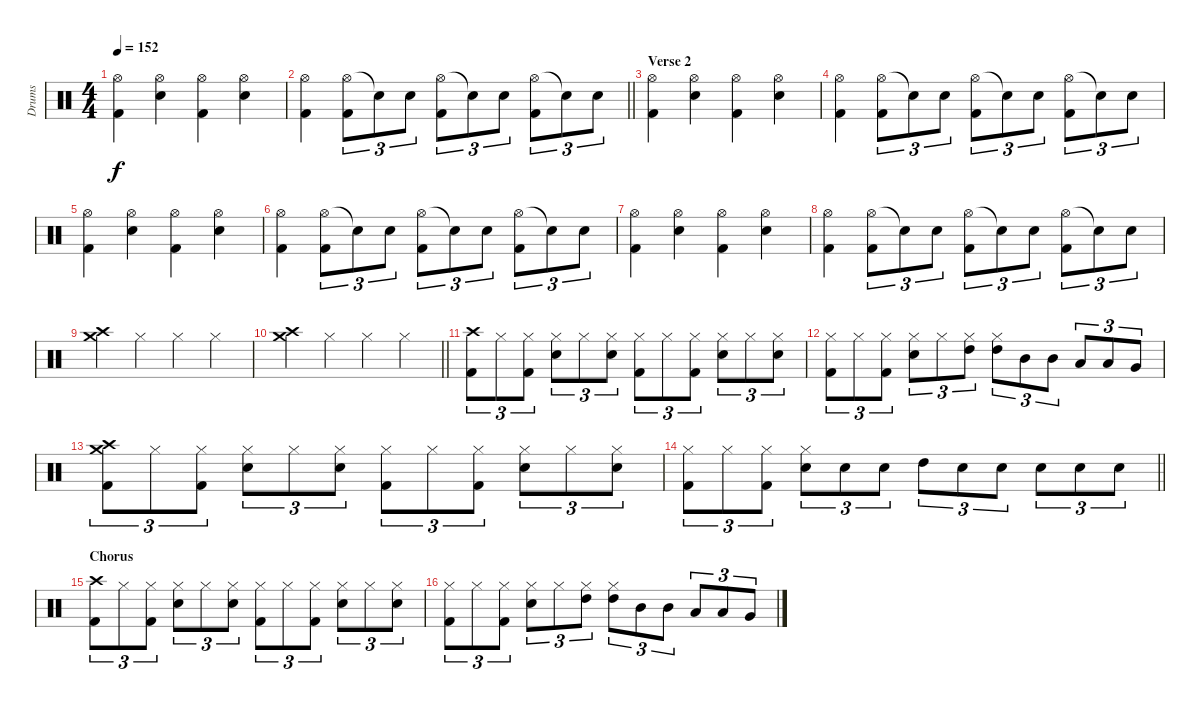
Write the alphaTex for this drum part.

\track ("Drums" "Drums") {instrument percussion}
\staff {score}
\articulation defaults
\ts (4 4)
\tempo 152
\clef neutral
\ks c
("Hi-Hat (open)" "Kick (hit) 2").4{dy f} ("Hi-Hat (open)" "Snare (hit) 2").4 ("Hi-Hat (open)" "Kick (hit) 2").4 ("Hi-Hat (open)" "Snare (hit) 2").4 |
\barLineRight lightlight
("Hi-Hat (open)" "Kick (hit) 2").4 ("Hi-Hat (open)" "Kick (hit) 2").8{tu (3 2)} "Snare (hit)"{t}.8{tu (3 2)} "Snare (hit) 2".8{tu (3 2)} ("Hi-Hat (open)" "Kick (hit) 2").8{tu (3 2)} "Snare (hit)"{t}.8{tu (3 2)} "Snare (hit) 2".8{tu (3 2)} ("Hi-Hat (open)" "Kick (hit) 2").8{tu (3 2)} "Snare (hit) 2"{t}.8{tu (3 2)} "Snare (hit) 2".8{tu (3 2)} |
\section ("" "Verse 2")
("Hi-Hat (open)" "Kick (hit) 2").4 ("Hi-Hat (open)" "Snare (hit) 2").4 ("Hi-Hat (open)" "Kick (hit) 2").4 ("Hi-Hat (open)" "Snare (hit) 2").4 |
("Hi-Hat (open)" "Kick (hit) 2").4 ("Hi-Hat (open)" "Kick (hit) 2").8{tu (3 2)} "Snare (hit)"{t}.8{tu (3 2)} "Snare (hit) 2".8{tu (3 2)} ("Hi-Hat (open)" "Kick (hit) 2").8{tu (3 2)} "Snare (hit)"{t}.8{tu (3 2)} "Snare (hit) 2".8{tu (3 2)} ("Hi-Hat (open)" "Kick (hit) 2").8{tu (3 2)} "Snare (hit) 2"{t}.8{tu (3 2)} "Snare (hit) 2".8{tu (3 2)} |
("Hi-Hat (open)" "Kick (hit) 2").4 ("Hi-Hat (open)" "Snare (hit) 2").4 ("Hi-Hat (open)" "Kick (hit) 2").4 ("Hi-Hat (open)" "Snare (hit) 2").4 |
("Hi-Hat (open)" "Kick (hit) 2").4 ("Hi-Hat (open)" "Kick (hit) 2").8{tu (3 2)} "Snare (hit)"{t}.8{tu (3 2)} "Snare (hit) 2".8{tu (3 2)} ("Hi-Hat (open)" "Kick (hit) 2").8{tu (3 2)} "Snare (hit)"{t}.8{tu (3 2)} "Snare (hit) 2".8{tu (3 2)} ("Hi-Hat (open)" "Kick (hit) 2").8{tu (3 2)} "Snare (hit) 2"{t}.8{tu (3 2)} "Snare (hit) 2".8{tu (3 2)} |
("Hi-Hat (open)" "Kick (hit) 2").4 ("Hi-Hat (open)" "Snare (hit) 2").4 ("Hi-Hat (open)" "Kick (hit) 2").4 ("Hi-Hat (open)" "Snare (hit) 2").4 |
("Hi-Hat (open)" "Kick (hit) 2").4 ("Hi-Hat (open)" "Kick (hit) 2").8{tu (3 2)} "Snare (hit)"{t}.8{tu (3 2)} "Snare (hit) 2".8{tu (3 2)} ("Hi-Hat (open)" "Kick (hit) 2").8{tu (3 2)} "Snare (hit)"{t}.8{tu (3 2)} "Snare (hit) 2".8{tu (3 2)} ("Hi-Hat (open)" "Kick (hit) 2").8{tu (3 2)} "Snare (hit) 2"{t}.8{tu (3 2)} "Snare (hit) 2".8{tu (3 2)} |
("Crash high (hit)" "Crash medium (hit)").4 "Hi-Hat (closed)".4 "Hi-Hat (closed)".4 "Hi-Hat (closed)".4 |
\barLineRight lightlight
("Crash high (hit)" "Crash medium (hit)").4 "Hi-Hat (closed)".4 "Hi-Hat (closed)".4 "Hi-Hat (closed)".4 |
("Crash high (hit)" "Kick (hit) 2").8{tu (3 2)} "Hi-Hat (closed)".8{tu (3 2)} ("Hi-Hat (closed)" "Kick (hit) 2").8{tu (3 2)} ("Hi-Hat (closed)" "Snare (hit) 2").8{tu (3 2)} "Hi-Hat (closed)".8{tu (3 2)} ("Hi-Hat (closed)" "Snare (hit) 2").8{tu (3 2)} ("Hi-Hat (closed)" "Kick (hit) 2").8{tu (3 2)} "Hi-Hat (closed)".8{tu (3 2)} ("Hi-Hat (closed)" "Kick (hit) 2").8{tu (3 2)} ("Hi-Hat (closed)" "Snare (hit) 2").8{tu (3 2)} "Hi-Hat (closed)".8{tu (3 2)} ("Hi-Hat (closed)" "Snare (hit) 2").8{tu (3 2)} |
("Hi-Hat (closed)" "Kick (hit) 2").8{tu (3 2)} "Hi-Hat (closed)".8{tu (3 2)} ("Hi-Hat (closed)" "Kick (hit) 2").8{tu (3 2)} ("Hi-Hat (closed)" "Snare (hit) 2").8{tu (3 2)} "Hi-Hat (closed)".8{tu (3 2)} ("Hi-Hat (closed)" "High Tom (hit)").8{tu (3 2)} ("Hi-Hat (closed)" "High Tom (hit)").8{tu (3 2)} "Mid Tom (hit)".8{tu (3 2)} "Mid Tom (hit)".8{tu (3 2)} "Low Tom (hit)".8{tu (3 2)} "Low Tom (hit)".8{tu (3 2)} "Very Low Tom (hit)".8{tu (3 2)} |
("Crash high (hit)" "Crash medium (hit)" "Kick (hit) 2").8{tu (3 2)} "Hi-Hat (closed)".8{tu (3 2)} ("Hi-Hat (closed)" "Kick (hit) 2").8{tu (3 2)} ("Hi-Hat (closed)" "Snare (hit) 2").8{tu (3 2)} "Hi-Hat (closed)".8{tu (3 2)} ("Hi-Hat (closed)" "Snare (hit) 2").8{tu (3 2)} ("Hi-Hat (closed)" "Kick (hit) 2").8{tu (3 2)} "Hi-Hat (closed)".8{tu (3 2)} ("Hi-Hat (closed)" "Kick (hit) 2").8{tu (3 2)} ("Hi-Hat (closed)" "Snare (hit) 2").8{tu (3 2)} "Hi-Hat (closed)".8{tu (3 2)} ("Hi-Hat (closed)" "Snare (hit) 2").8{tu (3 2)} |
\barLineRight lightlight
("Hi-Hat (closed)" "Kick (hit) 2").8{tu (3 2)} "Hi-Hat (closed)".8{tu (3 2)} ("Hi-Hat (closed)" "Kick (hit) 2").8{tu (3 2)} ("Hi-Hat (closed)" "Snare (hit) 2").8{tu (3 2)} "Snare (hit) 2".8{tu (3 2)} "Snare (hit) 2".8{tu (3 2)} "High Tom (hit)".8{tu (3 2)} "Snare (hit) 2".8{tu (3 2)} "Snare (hit) 2".8{tu (3 2)} "Snare (hit) 2".8{tu (3 2)} "Snare (hit) 2".8{tu (3 2)} "Snare (hit) 2".8{tu (3 2)} |
\section ("" "Chorus")
("Crash high (hit)" "Kick (hit) 2").8{tu (3 2)} "Hi-Hat (closed)".8{tu (3 2)} ("Hi-Hat (closed)" "Kick (hit) 2").8{tu (3 2)} ("Hi-Hat (closed)" "Snare (hit) 2").8{tu (3 2)} "Hi-Hat (closed)".8{tu (3 2)} ("Hi-Hat (closed)" "Snare (hit) 2").8{tu (3 2)} ("Hi-Hat (closed)" "Kick (hit) 2").8{tu (3 2)} "Hi-Hat (closed)".8{tu (3 2)} ("Hi-Hat (closed)" "Kick (hit) 2").8{tu (3 2)} ("Hi-Hat (closed)" "Snare (hit) 2").8{tu (3 2)} "Hi-Hat (closed)".8{tu (3 2)} ("Hi-Hat (closed)" "Snare (hit) 2").8{tu (3 2)} |
("Hi-Hat (closed)" "Kick (hit) 2").8{tu (3 2)} "Hi-Hat (closed)".8{tu (3 2)} ("Hi-Hat (closed)" "Kick (hit) 2").8{tu (3 2)} ("Hi-Hat (closed)" "Snare (hit) 2").8{tu (3 2)} "Hi-Hat (closed)".8{tu (3 2)} ("Hi-Hat (closed)" "High Tom (hit)").8{tu (3 2)} ("Hi-Hat (closed)" "High Tom (hit)").8{tu (3 2)} "Mid Tom (hit)".8{tu (3 2)} "Mid Tom (hit)".8{tu (3 2)} "Low Tom (hit)".8{tu (3 2)} "Low Tom (hit)".8{tu (3 2)} "Very Low Tom (hit)".8{tu (3 2)}
